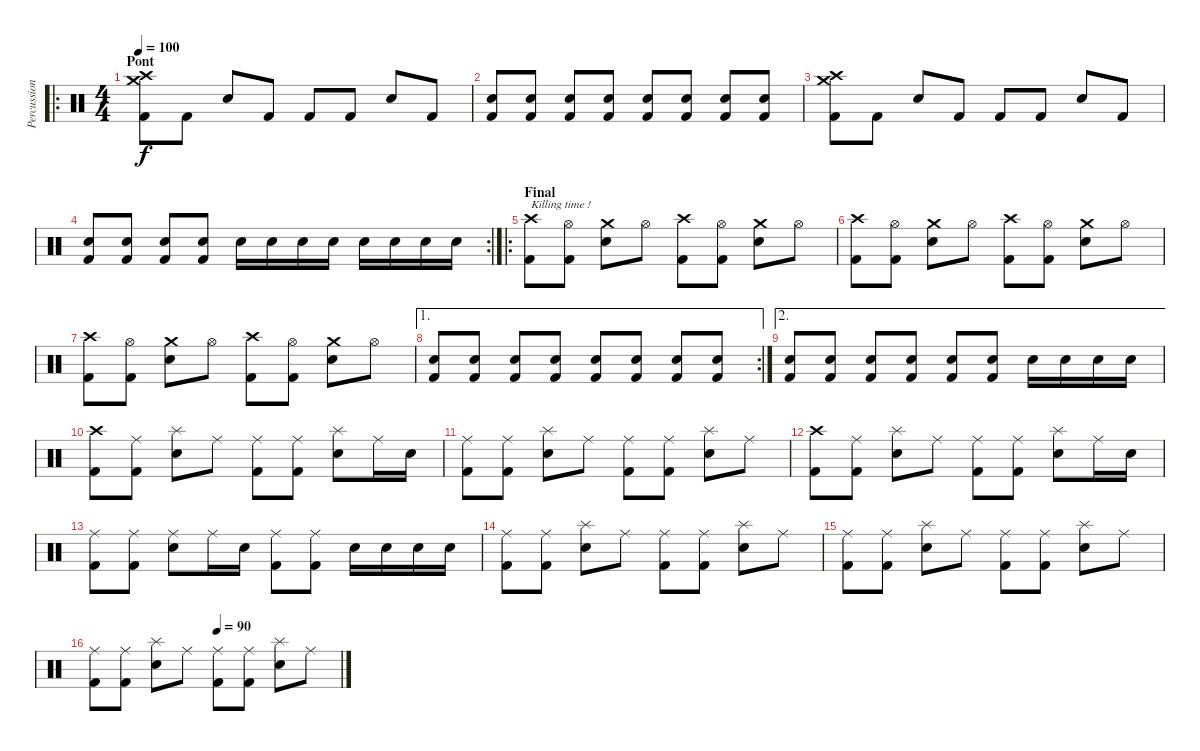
\track ("Percussions" "Percussion") {instrument percussion}
\staff {score}
\articulation defaults
\ro
\ts (4 4)
\section ("" "Pont")
\tempo 100
\clef neutral
\ks c
("Crash high (hit)" "Crash medium (hit)" "Kick (hit) 2").8{dy f} "Kick (hit) 2".8 "Electric Snare (hit)".8 "Kick (hit) 2".8 "Kick (hit) 2".8 "Kick (hit) 2".8 "Electric Snare (hit)".8 "Kick (hit) 2".8 |
("Snare (hit) 2" "Kick (hit) 2").8 ("Snare (hit) 2" "Kick (hit) 2").8 ("Snare (hit) 2" "Kick (hit) 2").8 ("Snare (hit) 2" "Kick (hit) 2").8 ("Snare (hit) 2" "Kick (hit) 2").8 ("Snare (hit) 2" "Kick (hit) 2").8 ("Snare (hit) 2" "Kick (hit) 2").8 ("Snare (hit) 2" "Kick (hit) 2").8 |
("Crash high (hit)" "Crash medium (hit)" "Kick (hit) 2").8 "Kick (hit) 2".8 "Electric Snare (hit)".8 "Kick (hit) 2".8 "Kick (hit) 2".8 "Kick (hit) 2".8 "Electric Snare (hit)".8 "Kick (hit) 2".8 |
\rc 2
("Snare (hit) 2" "Kick (hit) 2").8 ("Snare (hit) 2" "Kick (hit) 2").8 ("Snare (hit) 2" "Kick (hit) 2").8 ("Snare (hit) 2" "Kick (hit) 2").8 "Electric Snare (hit)".16 "Electric Snare (hit)".16 "Electric Snare (hit)".16 "Electric Snare (hit)".16 "Electric Snare (hit)".16 "Electric Snare (hit)".16 "Electric Snare (hit)".16 "Electric Snare (hit)".16 |
\ro
\section ("" "Final")
("Crash high (hit)" "Kick (hit) 2").8{txt "Killing time !"} ("Hi-Hat (open)" "Kick (hit) 2").8 ("Crash medium (hit)" "Electric Snare (hit)").8 "Hi-Hat (open)".8 ("Crash high (hit)" "Kick (hit) 2").8 ("Hi-Hat (open)" "Kick (hit) 2").8 ("Crash medium (hit)" "Electric Snare (hit)").8 "Hi-Hat (open)".8 |
("Crash high (hit)" "Kick (hit) 2").8 ("Hi-Hat (open)" "Kick (hit) 2").8 ("Crash medium (hit)" "Electric Snare (hit)").8 "Hi-Hat (open)".8 ("Crash high (hit)" "Kick (hit) 2").8 ("Hi-Hat (open)" "Kick (hit) 2").8 ("Crash medium (hit)" "Electric Snare (hit)").8 "Hi-Hat (open)".8 |
("Crash high (hit)" "Kick (hit) 2").8 ("Hi-Hat (open)" "Kick (hit) 2").8 ("Crash medium (hit)" "Electric Snare (hit)").8 "Hi-Hat (open)".8 ("Crash high (hit)" "Kick (hit) 2").8 ("Hi-Hat (open)" "Kick (hit) 2").8 ("Crash medium (hit)" "Electric Snare (hit)").8 "Hi-Hat (open)".8 |
\ae 1
\rc 2
("Snare (hit) 2" "Kick (hit) 2").8 ("Snare (hit) 2" "Kick (hit) 2").8 ("Snare (hit) 2" "Kick (hit) 2").8 ("Snare (hit) 2" "Kick (hit) 2").8 ("Snare (hit) 2" "Kick (hit) 2").8 ("Snare (hit) 2" "Kick (hit) 2").8 ("Snare (hit) 2" "Kick (hit) 2").8 ("Snare (hit) 2" "Kick (hit) 2").8 |
\ae 2
("Snare (hit) 2" "Kick (hit) 2").8 ("Snare (hit) 2" "Kick (hit) 2").8 ("Snare (hit) 2" "Kick (hit) 2").8 ("Snare (hit) 2" "Kick (hit) 2").8 ("Snare (hit) 2" "Kick (hit) 2").8 ("Snare (hit) 2" "Kick (hit) 2").8 "Electric Snare (hit)".16 "Electric Snare (hit)".16 "Electric Snare (hit)".16 "Electric Snare (hit)".16 |
("Crash high (hit)" "Kick (hit) 2").8 ("Ride (middle)" "Kick (hit) 2").8 ("Splash (hit)" "Electric Snare (hit)").8 "Ride (middle)".8 ("Ride (middle)" "Kick (hit) 2").8 ("Ride (middle)" "Kick (hit) 2").8 ("Splash (hit)" "Electric Snare (hit)").8 "Ride (middle)".16 "Electric Snare (hit)".16 |
("Ride (middle)" "Kick (hit) 2").8 ("Ride (middle)" "Kick (hit) 2").8 ("Splash (hit)" "Electric Snare (hit)").8 "Ride (middle)".8 ("Ride (middle)" "Kick (hit) 2").8 ("Ride (middle)" "Kick (hit) 2").8 ("Splash (hit)" "Electric Snare (hit)").8 "Ride (middle)".8 |
("Crash high (hit)" "Kick (hit) 2").8 ("Ride (middle)" "Kick (hit) 2").8 ("Splash (hit)" "Electric Snare (hit)").8 "Ride (middle)".8 ("Ride (middle)" "Kick (hit) 2").8 ("Ride (middle)" "Kick (hit) 2").8 ("Splash (hit)" "Electric Snare (hit)").8 "Ride (middle)".16 "Electric Snare (hit)".16 |
("Ride (middle)" "Kick (hit) 2").8 ("Ride (middle)" "Kick (hit) 2").8 ("Ride (middle)" "Electric Snare (hit)").8 "Ride (middle)".16 "Electric Snare (hit)".16 ("Ride (middle)" "Kick (hit) 2").8 ("Ride (middle)" "Kick (hit) 2").8 "Electric Snare (hit)".16 "Electric Snare (hit)".16 "Electric Snare (hit)".16 "Electric Snare (hit)".16 |
("Ride (middle)" "Kick (hit) 2").8 ("Ride (middle)" "Kick (hit) 2").8 ("Splash (hit)" "Electric Snare (hit)").8 "Ride (middle)".8 ("Ride (middle)" "Kick (hit) 2").8 ("Ride (middle)" "Kick (hit) 2").8 ("Splash (hit)" "Electric Snare (hit)").8 "Ride (middle)".8 |
("Ride (middle)" "Kick (hit) 2").8 ("Ride (middle)" "Kick (hit) 2").8 ("Splash (hit)" "Electric Snare (hit)").8 "Ride (middle)".8 ("Ride (middle)" "Kick (hit) 2").8 ("Ride (middle)" "Kick (hit) 2").8 ("Splash (hit)" "Electric Snare (hit)").8 "Ride (middle)".8 |
\tempo (90 0.5)
("Ride (middle)" "Kick (hit) 2").8 ("Ride (middle)" "Kick (hit) 2").8 ("Splash (hit)" "Electric Snare (hit)").8 "Ride (middle)".8 ("Ride (middle)" "Kick (hit) 2").8 ("Ride (middle)" "Kick (hit) 2").8 ("Splash (hit)" "Electric Snare (hit)").8 "Ride (middle)".8
